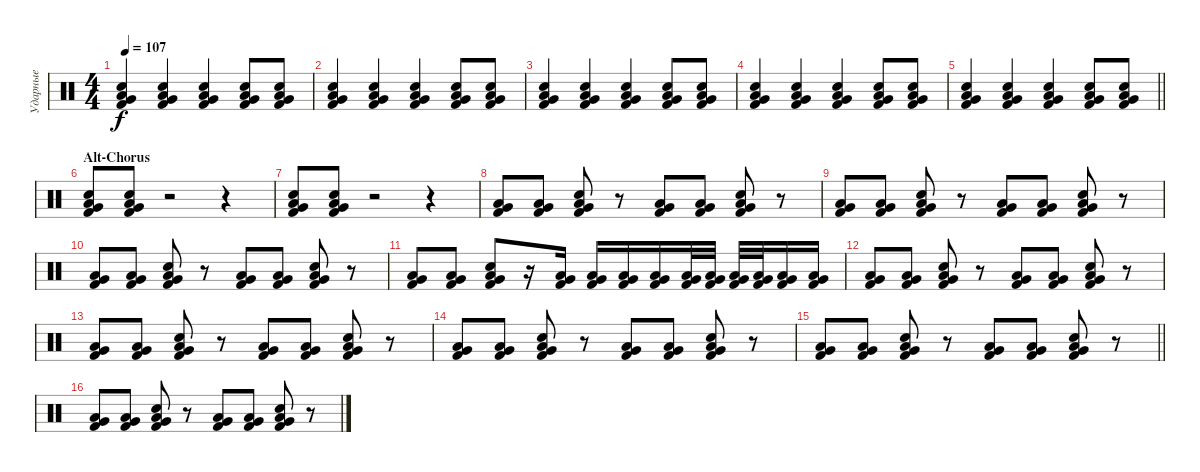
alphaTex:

\track ("Ударные" "Ударные") {instrument percussion}
\staff {score}
\articulation defaults
\ts (4 4)
\tempo 107
\clef neutral
\ks c
("Snare (hit) 2" "Low Tom (hit)" "Very Low Tom (hit)" "Kick (hit) 2").4{dy f} ("Snare (hit) 2" "Low Tom (hit)" "Very Low Tom (hit)" "Kick (hit) 2").4 ("Snare (hit) 2" "Low Tom (hit)" "Very Low Tom (hit)" "Kick (hit) 2").4 ("Snare (hit) 2" "Low Tom (hit)" "Very Low Tom (hit)" "Kick (hit) 2").8 ("Snare (hit) 2" "Low Tom (hit)" "Very Low Tom (hit)" "Kick (hit) 2").8 |
("Snare (hit) 2" "Low Tom (hit)" "Very Low Tom (hit)" "Kick (hit) 2").4 ("Snare (hit) 2" "Low Tom (hit)" "Very Low Tom (hit)" "Kick (hit) 2").4 ("Snare (hit) 2" "Low Tom (hit)" "Very Low Tom (hit)" "Kick (hit) 2").4 ("Snare (hit) 2" "Low Tom (hit)" "Very Low Tom (hit)" "Kick (hit) 2").8 ("Snare (hit) 2" "Low Tom (hit)" "Very Low Tom (hit)" "Kick (hit) 2").8 |
("Snare (hit) 2" "Low Tom (hit)" "Very Low Tom (hit)" "Kick (hit) 2").4 ("Snare (hit) 2" "Low Tom (hit)" "Very Low Tom (hit)" "Kick (hit) 2").4 ("Snare (hit) 2" "Low Tom (hit)" "Very Low Tom (hit)" "Kick (hit) 2").4 ("Snare (hit) 2" "Low Tom (hit)" "Very Low Tom (hit)" "Kick (hit) 2").8 ("Snare (hit) 2" "Low Tom (hit)" "Very Low Tom (hit)" "Kick (hit) 2").8 |
("Snare (hit) 2" "Low Tom (hit)" "Very Low Tom (hit)" "Kick (hit) 2").4 ("Snare (hit) 2" "Low Tom (hit)" "Very Low Tom (hit)" "Kick (hit) 2").4 ("Snare (hit) 2" "Low Tom (hit)" "Very Low Tom (hit)" "Kick (hit) 2").4 ("Snare (hit) 2" "Low Tom (hit)" "Very Low Tom (hit)" "Kick (hit) 2").8 ("Snare (hit) 2" "Low Tom (hit)" "Very Low Tom (hit)" "Kick (hit) 2").8 |
\barLineRight lightlight
("Snare (hit) 2" "Low Tom (hit)" "Very Low Tom (hit)" "Kick (hit) 2").4 ("Snare (hit) 2" "Low Tom (hit)" "Very Low Tom (hit)" "Kick (hit) 2").4 ("Snare (hit) 2" "Low Tom (hit)" "Very Low Tom (hit)" "Kick (hit) 2").4 ("Snare (hit) 2" "Low Tom (hit)" "Very Low Tom (hit)" "Kick (hit) 2").8 ("Snare (hit) 2" "Low Tom (hit)" "Very Low Tom (hit)" "Kick (hit) 2").8 |
\section ("" "Alt-Chorus")
("Snare (hit) 2" "Low Tom (hit)" "Very Low Tom (hit)" "Kick (hit) 2").8 ("Snare (hit) 2" "Low Tom (hit)" "Very Low Tom (hit)" "Kick (hit) 2").8 r.2 r.4 |
("Snare (hit) 2" "Low Tom (hit)" "Very Low Tom (hit)" "Kick (hit) 2").8 ("Snare (hit) 2" "Low Tom (hit)" "Very Low Tom (hit)" "Kick (hit) 2").8 r.2 r.4 |
("Kick (hit) 2" "Low Tom (hit)" "Very Low Tom (hit)").8 ("Kick (hit) 2" "Low Tom (hit)" "Very Low Tom (hit)").8 ("Snare (hit) 2" "Low Tom (hit)" "Very Low Tom (hit)" "Kick (hit) 2").8 r.8 ("Kick (hit) 2" "Low Tom (hit)" "Very Low Tom (hit)").8 ("Kick (hit) 2" "Low Tom (hit)" "Very Low Tom (hit)").8 ("Snare (hit) 2" "Low Tom (hit)" "Very Low Tom (hit)" "Kick (hit) 2").8 r.8 |
("Kick (hit) 2" "Low Tom (hit)" "Very Low Tom (hit)").8 ("Kick (hit) 2" "Low Tom (hit)" "Very Low Tom (hit)").8 ("Snare (hit) 2" "Low Tom (hit)" "Very Low Tom (hit)" "Kick (hit) 2").8 r.8 ("Kick (hit) 2" "Low Tom (hit)" "Very Low Tom (hit)").8 ("Kick (hit) 2" "Low Tom (hit)" "Very Low Tom (hit)").8 ("Snare (hit) 2" "Low Tom (hit)" "Very Low Tom (hit)" "Kick (hit) 2").8 r.8 |
("Kick (hit) 2" "Low Tom (hit)" "Very Low Tom (hit)").8 ("Kick (hit) 2" "Low Tom (hit)" "Very Low Tom (hit)").8 ("Snare (hit) 2" "Low Tom (hit)" "Very Low Tom (hit)" "Kick (hit) 2").8 r.8 ("Kick (hit) 2" "Low Tom (hit)" "Very Low Tom (hit)").8 ("Kick (hit) 2" "Low Tom (hit)" "Very Low Tom (hit)").8 ("Snare (hit) 2" "Low Tom (hit)" "Very Low Tom (hit)" "Kick (hit) 2").8 r.8 |
("Kick (hit) 2" "Low Tom (hit)" "Very Low Tom (hit)").8 ("Kick (hit) 2" "Low Tom (hit)" "Very Low Tom (hit)").8 ("Snare (hit) 2" "Low Tom (hit)" "Very Low Tom (hit)" "Kick (hit) 2").8 r.16 ("Kick (hit) 2" "Low Tom (hit)" "Very Low Tom (hit)").16 ("Kick (hit) 2" "Low Tom (hit)" "Very Low Tom (hit)").16 ("Kick (hit) 2" "Low Tom (hit)" "Very Low Tom (hit)").16 ("Kick (hit) 2" "Low Tom (hit)" "Very Low Tom (hit)").16 ("Kick (hit) 2" "Low Tom (hit)" "Very Low Tom (hit)").32 ("Kick (hit) 2" "Low Tom (hit)" "Very Low Tom (hit)").32 ("Kick (hit) 2" "Low Tom (hit)" "Very Low Tom (hit)").32 ("Kick (hit) 2" "Low Tom (hit)" "Very Low Tom (hit)").32 ("Kick (hit) 2" "Low Tom (hit)" "Very Low Tom (hit)").16 ("Kick (hit) 2" "Low Tom (hit)" "Very Low Tom (hit)").16 |
("Kick (hit) 2" "Low Tom (hit)" "Very Low Tom (hit)").8 ("Kick (hit) 2" "Low Tom (hit)" "Very Low Tom (hit)").8 ("Snare (hit) 2" "Low Tom (hit)" "Very Low Tom (hit)" "Kick (hit) 2").8 r.8 ("Kick (hit) 2" "Low Tom (hit)" "Very Low Tom (hit)").8 ("Kick (hit) 2" "Low Tom (hit)" "Very Low Tom (hit)").8 ("Snare (hit) 2" "Low Tom (hit)" "Very Low Tom (hit)" "Kick (hit) 2").8 r.8 |
("Kick (hit) 2" "Low Tom (hit)" "Very Low Tom (hit)").8 ("Kick (hit) 2" "Low Tom (hit)" "Very Low Tom (hit)").8 ("Snare (hit) 2" "Low Tom (hit)" "Very Low Tom (hit)" "Kick (hit) 2").8 r.8 ("Kick (hit) 2" "Low Tom (hit)" "Very Low Tom (hit)").8 ("Kick (hit) 2" "Low Tom (hit)" "Very Low Tom (hit)").8 ("Snare (hit) 2" "Low Tom (hit)" "Very Low Tom (hit)" "Kick (hit) 2").8 r.8 |
("Kick (hit) 2" "Low Tom (hit)" "Very Low Tom (hit)").8 ("Kick (hit) 2" "Low Tom (hit)" "Very Low Tom (hit)").8 ("Snare (hit) 2" "Low Tom (hit)" "Very Low Tom (hit)" "Kick (hit) 2").8 r.8 ("Kick (hit) 2" "Low Tom (hit)" "Very Low Tom (hit)").8 ("Kick (hit) 2" "Low Tom (hit)" "Very Low Tom (hit)").8 ("Snare (hit) 2" "Low Tom (hit)" "Very Low Tom (hit)" "Kick (hit) 2").8 r.8 |
\barLineRight lightlight
("Kick (hit) 2" "Low Tom (hit)" "Very Low Tom (hit)").8 ("Kick (hit) 2" "Low Tom (hit)" "Very Low Tom (hit)").8 ("Snare (hit) 2" "Low Tom (hit)" "Very Low Tom (hit)" "Kick (hit) 2").8 r.8 ("Kick (hit) 2" "Low Tom (hit)" "Very Low Tom (hit)").8 ("Kick (hit) 2" "Low Tom (hit)" "Very Low Tom (hit)").8 ("Snare (hit) 2" "Low Tom (hit)" "Very Low Tom (hit)" "Kick (hit) 2").8 r.8 |
("Kick (hit) 2" "Low Tom (hit)" "Very Low Tom (hit)").8 ("Kick (hit) 2" "Low Tom (hit)" "Very Low Tom (hit)").8 ("Snare (hit) 2" "Low Tom (hit)" "Very Low Tom (hit)" "Kick (hit) 2").8 r.8 ("Kick (hit) 2" "Low Tom (hit)" "Very Low Tom (hit)").8 ("Kick (hit) 2" "Low Tom (hit)" "Very Low Tom (hit)").8 ("Snare (hit) 2" "Low Tom (hit)" "Very Low Tom (hit)" "Kick (hit) 2").8 r.8
